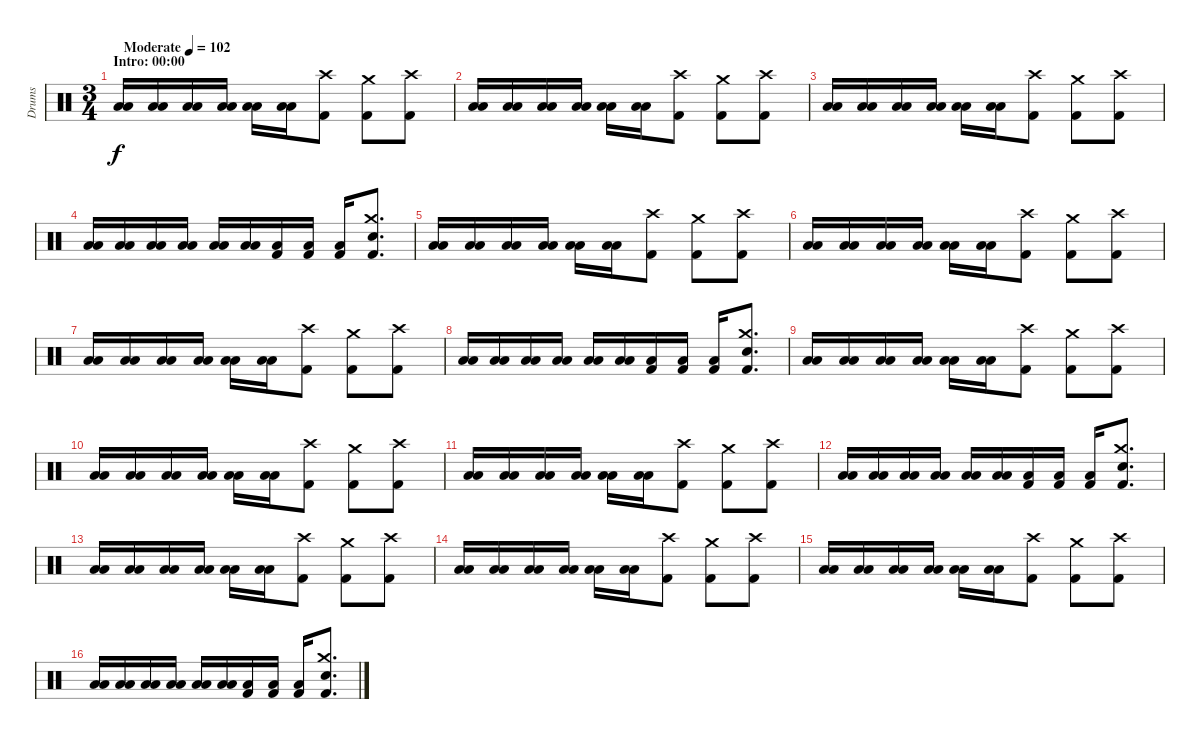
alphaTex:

\track ("Drums" "Drums") {instrument percussion}
\staff {score}
\articulation defaults
\ts (3 4)
\section ("" "Intro: 00:00")
\tempo (102 "Moderate")
\clef neutral
\ks c
("Low Tom (hit)" "Low Floor Tom (hit)").16{dy f} ("Low Tom (hit)" "Low Floor Tom (hit)").16 ("Low Tom (hit)" "Low Floor Tom (hit)").16 ("Low Tom (hit)" "Low Floor Tom (hit)").16 ("Low Tom (hit)" "Low Floor Tom (hit)").16 ("Low Tom (hit)" "Low Floor Tom (hit)").16 ("Crash high (hit)" "Kick (hit) 2").8 ("Crash medium (hit)" "Kick (hit) 2").8 ("Crash high (hit)" "Kick (hit) 2").8 |
("Low Tom (hit)" "Low Floor Tom (hit)").16 ("Low Tom (hit)" "Low Floor Tom (hit)").16 ("Low Tom (hit)" "Low Floor Tom (hit)").16 ("Low Tom (hit)" "Low Floor Tom (hit)").16 ("Low Tom (hit)" "Low Floor Tom (hit)").16 ("Low Tom (hit)" "Low Floor Tom (hit)").16 ("Crash high (hit)" "Kick (hit) 2").8 ("Crash medium (hit)" "Kick (hit) 2").8 ("Crash high (hit)" "Kick (hit) 2").8 |
("Low Tom (hit)" "Low Floor Tom (hit)").16 ("Low Tom (hit)" "Low Floor Tom (hit)").16 ("Low Tom (hit)" "Low Floor Tom (hit)").16 ("Low Tom (hit)" "Low Floor Tom (hit)").16 ("Low Tom (hit)" "Low Floor Tom (hit)").16 ("Low Tom (hit)" "Low Floor Tom (hit)").16 ("Crash high (hit)" "Kick (hit) 2").8 ("Crash medium (hit)" "Kick (hit) 2").8 ("Crash high (hit)" "Kick (hit) 2").8 |
("Low Tom (hit)" "Low Floor Tom (hit)").16 ("Low Tom (hit)" "Low Floor Tom (hit)").16 ("Low Tom (hit)" "Low Floor Tom (hit)").16 ("Low Tom (hit)" "Low Floor Tom (hit)").16 ("Low Tom (hit)" "Low Floor Tom (hit)").16 ("Low Tom (hit)" "Low Floor Tom (hit)").16 ("Low Floor Tom (hit)" "Kick (hit) 2").16 ("Low Floor Tom (hit)" "Kick (hit) 2").16 ("Low Floor Tom (hit)" "Kick (hit) 2").16 ("Crash medium (hit)" "Electric Snare (hit)" "Kick (hit) 2").8{d} |
("Low Tom (hit)" "Low Floor Tom (hit)").16 ("Low Tom (hit)" "Low Floor Tom (hit)").16 ("Low Tom (hit)" "Low Floor Tom (hit)").16 ("Low Tom (hit)" "Low Floor Tom (hit)").16 ("Low Tom (hit)" "Low Floor Tom (hit)").16 ("Low Tom (hit)" "Low Floor Tom (hit)").16 ("Crash high (hit)" "Kick (hit) 2").8 ("Crash medium (hit)" "Kick (hit) 2").8 ("Crash high (hit)" "Kick (hit) 2").8 |
("Low Tom (hit)" "Low Floor Tom (hit)").16 ("Low Tom (hit)" "Low Floor Tom (hit)").16 ("Low Tom (hit)" "Low Floor Tom (hit)").16 ("Low Tom (hit)" "Low Floor Tom (hit)").16 ("Low Tom (hit)" "Low Floor Tom (hit)").16 ("Low Tom (hit)" "Low Floor Tom (hit)").16 ("Crash high (hit)" "Kick (hit) 2").8 ("Crash medium (hit)" "Kick (hit) 2").8 ("Crash high (hit)" "Kick (hit) 2").8 |
("Low Tom (hit)" "Low Floor Tom (hit)").16 ("Low Tom (hit)" "Low Floor Tom (hit)").16 ("Low Tom (hit)" "Low Floor Tom (hit)").16 ("Low Tom (hit)" "Low Floor Tom (hit)").16 ("Low Tom (hit)" "Low Floor Tom (hit)").16 ("Low Tom (hit)" "Low Floor Tom (hit)").16 ("Crash high (hit)" "Kick (hit) 2").8 ("Crash medium (hit)" "Kick (hit) 2").8 ("Crash high (hit)" "Kick (hit) 2").8 |
("Low Tom (hit)" "Low Floor Tom (hit)").16 ("Low Tom (hit)" "Low Floor Tom (hit)").16 ("Low Tom (hit)" "Low Floor Tom (hit)").16 ("Low Tom (hit)" "Low Floor Tom (hit)").16 ("Low Tom (hit)" "Low Floor Tom (hit)").16 ("Low Tom (hit)" "Low Floor Tom (hit)").16 ("Low Floor Tom (hit)" "Kick (hit) 2").16 ("Low Floor Tom (hit)" "Kick (hit) 2").16 ("Low Floor Tom (hit)" "Kick (hit) 2").16 ("Crash medium (hit)" "Electric Snare (hit)" "Kick (hit) 2").8{d} |
("Low Tom (hit)" "Low Floor Tom (hit)").16 ("Low Tom (hit)" "Low Floor Tom (hit)").16 ("Low Tom (hit)" "Low Floor Tom (hit)").16 ("Low Tom (hit)" "Low Floor Tom (hit)").16 ("Low Tom (hit)" "Low Floor Tom (hit)").16 ("Low Tom (hit)" "Low Floor Tom (hit)").16 ("Crash high (hit)" "Kick (hit) 2").8 ("Crash medium (hit)" "Kick (hit) 2").8 ("Crash high (hit)" "Kick (hit) 2").8 |
("Low Tom (hit)" "Low Floor Tom (hit)").16 ("Low Tom (hit)" "Low Floor Tom (hit)").16 ("Low Tom (hit)" "Low Floor Tom (hit)").16 ("Low Tom (hit)" "Low Floor Tom (hit)").16 ("Low Tom (hit)" "Low Floor Tom (hit)").16 ("Low Tom (hit)" "Low Floor Tom (hit)").16 ("Crash high (hit)" "Kick (hit) 2").8 ("Crash medium (hit)" "Kick (hit) 2").8 ("Crash high (hit)" "Kick (hit) 2").8 |
("Low Tom (hit)" "Low Floor Tom (hit)").16 ("Low Tom (hit)" "Low Floor Tom (hit)").16 ("Low Tom (hit)" "Low Floor Tom (hit)").16 ("Low Tom (hit)" "Low Floor Tom (hit)").16 ("Low Tom (hit)" "Low Floor Tom (hit)").16 ("Low Tom (hit)" "Low Floor Tom (hit)").16 ("Crash high (hit)" "Kick (hit) 2").8 ("Crash medium (hit)" "Kick (hit) 2").8 ("Crash high (hit)" "Kick (hit) 2").8 |
("Low Tom (hit)" "Low Floor Tom (hit)").16 ("Low Tom (hit)" "Low Floor Tom (hit)").16 ("Low Tom (hit)" "Low Floor Tom (hit)").16 ("Low Tom (hit)" "Low Floor Tom (hit)").16 ("Low Tom (hit)" "Low Floor Tom (hit)").16 ("Low Tom (hit)" "Low Floor Tom (hit)").16 ("Low Floor Tom (hit)" "Kick (hit) 2").16 ("Low Floor Tom (hit)" "Kick (hit) 2").16 ("Low Floor Tom (hit)" "Kick (hit) 2").16 ("Crash medium (hit)" "Electric Snare (hit)" "Kick (hit) 2").8{d} |
("Low Tom (hit)" "Low Floor Tom (hit)").16 ("Low Tom (hit)" "Low Floor Tom (hit)").16 ("Low Tom (hit)" "Low Floor Tom (hit)").16 ("Low Tom (hit)" "Low Floor Tom (hit)").16 ("Low Tom (hit)" "Low Floor Tom (hit)").16 ("Low Tom (hit)" "Low Floor Tom (hit)").16 ("Crash high (hit)" "Kick (hit) 2").8 ("Crash medium (hit)" "Kick (hit) 2").8 ("Crash high (hit)" "Kick (hit) 2").8 |
("Low Tom (hit)" "Low Floor Tom (hit)").16 ("Low Tom (hit)" "Low Floor Tom (hit)").16 ("Low Tom (hit)" "Low Floor Tom (hit)").16 ("Low Tom (hit)" "Low Floor Tom (hit)").16 ("Low Tom (hit)" "Low Floor Tom (hit)").16 ("Low Tom (hit)" "Low Floor Tom (hit)").16 ("Crash high (hit)" "Kick (hit) 2").8 ("Crash medium (hit)" "Kick (hit) 2").8 ("Crash high (hit)" "Kick (hit) 2").8 |
("Low Tom (hit)" "Low Floor Tom (hit)").16 ("Low Tom (hit)" "Low Floor Tom (hit)").16 ("Low Tom (hit)" "Low Floor Tom (hit)").16 ("Low Tom (hit)" "Low Floor Tom (hit)").16 ("Low Tom (hit)" "Low Floor Tom (hit)").16 ("Low Tom (hit)" "Low Floor Tom (hit)").16 ("Crash high (hit)" "Kick (hit) 2").8 ("Crash medium (hit)" "Kick (hit) 2").8 ("Crash high (hit)" "Kick (hit) 2").8 |
("Low Tom (hit)" "Low Floor Tom (hit)").16 ("Low Tom (hit)" "Low Floor Tom (hit)").16 ("Low Tom (hit)" "Low Floor Tom (hit)").16 ("Low Tom (hit)" "Low Floor Tom (hit)").16 ("Low Tom (hit)" "Low Floor Tom (hit)").16 ("Low Tom (hit)" "Low Floor Tom (hit)").16 ("Low Floor Tom (hit)" "Kick (hit) 2").16 ("Low Floor Tom (hit)" "Kick (hit) 2").16 ("Low Floor Tom (hit)" "Kick (hit) 2").16 ("Crash medium (hit)" "Electric Snare (hit)" "Kick (hit) 2").8{d}
